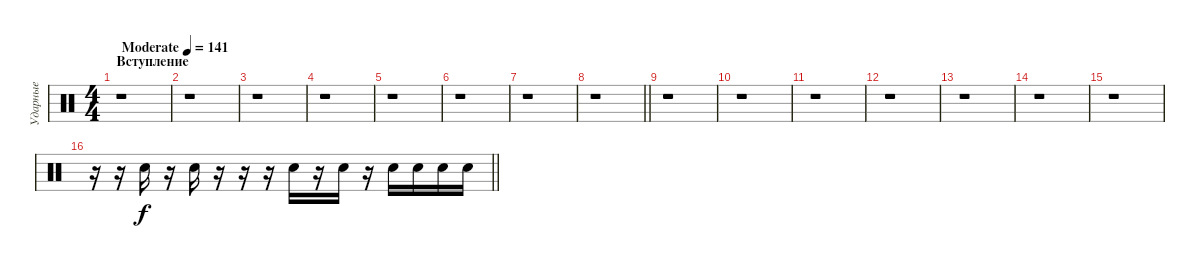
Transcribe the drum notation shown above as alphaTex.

\track ("Ударные" "Ударные") {instrument percussion}
\staff {score}
\articulation defaults
\ts (4 4)
\section ("" "Вступление")
\tempo (141 "Moderate")
\clef neutral
\ks c
r.1{dy f} |
r.1 |
r.1 |
r.1 |
r.1 |
r.1 |
r.1 |
\barLineRight lightlight
r.1 |
\section ("" "")
r.1 |
r.1 |
r.1 |
r.1 |
r.1 |
r.1 |
r.1 |
\barLineRight lightlight
r.16 r.16 "Electric Snare (hit)".16 r.16 "Electric Snare (hit)".16 r.16 r.16 r.16 "Electric Snare (hit)".16 r.16 "Electric Snare (hit)".16 r.16 "Electric Snare (hit)".16 "Electric Snare (hit)".16 "Electric Snare (hit)".16 "Electric Snare (hit)".16
